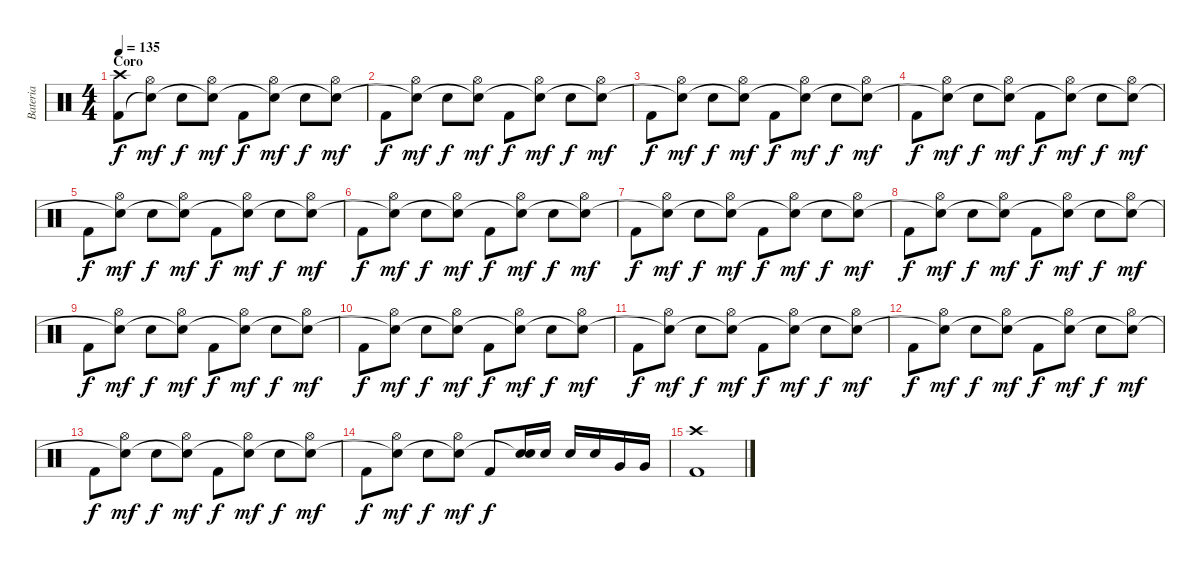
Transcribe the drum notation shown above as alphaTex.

\track ("Bateria" "Bateria") {instrument percussion}
\staff {score}
\articulation defaults
\ts (4 4)
\section ("" "Coro")
\tempo 135
\clef neutral
\ks c
("Crash high (hit)" "Kick (hit) 2").8{dy f} ("Hi-Hat (open)" "Snare (hit)"{t}).8{dy mf} "Electric Snare (hit)".8{dy f} ("Hi-Hat (open)" "Snare (hit)"{t}).8{dy mf} "Kick (hit) 2".8{dy f} ("Hi-Hat (open)" "Snare (hit)"{t}).8{dy mf} "Electric Snare (hit)".8{dy f} ("Hi-Hat (open)" "Snare (hit)"{t}).8{dy mf} |
"Kick (hit) 2".8{dy f} ("Hi-Hat (open)" "Snare (hit)"{t}).8{dy mf} "Electric Snare (hit)".8{dy f} ("Hi-Hat (open)" "Snare (hit)"{t}).8{dy mf} "Kick (hit) 2".8{dy f} ("Hi-Hat (open)" "Snare (hit)"{t}).8{dy mf} "Electric Snare (hit)".8{dy f} ("Hi-Hat (open)" "Snare (hit)"{t}).8{dy mf} |
"Kick (hit) 2".8{dy f} ("Hi-Hat (open)" "Snare (hit)"{t}).8{dy mf} "Electric Snare (hit)".8{dy f} ("Hi-Hat (open)" "Snare (hit)"{t}).8{dy mf} "Kick (hit) 2".8{dy f} ("Hi-Hat (open)" "Snare (hit)"{t}).8{dy mf} "Electric Snare (hit)".8{dy f} ("Hi-Hat (open)" "Snare (hit)"{t}).8{dy mf} |
"Kick (hit) 2".8{dy f} ("Hi-Hat (open)" "Snare (hit)"{t}).8{dy mf} "Electric Snare (hit)".8{dy f} ("Hi-Hat (open)" "Snare (hit)"{t}).8{dy mf} "Kick (hit) 2".8{dy f} ("Hi-Hat (open)" "Snare (hit)"{t}).8{dy mf} "Electric Snare (hit)".8{dy f} ("Hi-Hat (open)" "Snare (hit)"{t}).8{dy mf} |
"Kick (hit) 2".8{dy f} ("Hi-Hat (open)" "Snare (hit)"{t}).8{dy mf} "Electric Snare (hit)".8{dy f} ("Hi-Hat (open)" "Snare (hit)"{t}).8{dy mf} "Kick (hit) 2".8{dy f} ("Hi-Hat (open)" "Snare (hit)"{t}).8{dy mf} "Electric Snare (hit)".8{dy f} ("Hi-Hat (open)" "Snare (hit)"{t}).8{dy mf} |
"Kick (hit) 2".8{dy f} ("Hi-Hat (open)" "Snare (hit)"{t}).8{dy mf} "Electric Snare (hit)".8{dy f} ("Hi-Hat (open)" "Snare (hit)"{t}).8{dy mf} "Kick (hit) 2".8{dy f} ("Hi-Hat (open)" "Snare (hit)"{t}).8{dy mf} "Electric Snare (hit)".8{dy f} ("Hi-Hat (open)" "Snare (hit)"{t}).8{dy mf} |
"Kick (hit) 2".8{dy f} ("Hi-Hat (open)" "Snare (hit)"{t}).8{dy mf} "Electric Snare (hit)".8{dy f} ("Hi-Hat (open)" "Snare (hit)"{t}).8{dy mf} "Kick (hit) 2".8{dy f} ("Hi-Hat (open)" "Snare (hit)"{t}).8{dy mf} "Electric Snare (hit)".8{dy f} ("Hi-Hat (open)" "Snare (hit)"{t}).8{dy mf} |
"Kick (hit) 2".8{dy f} ("Hi-Hat (open)" "Snare (hit)"{t}).8{dy mf} "Electric Snare (hit)".8{dy f} ("Hi-Hat (open)" "Snare (hit)"{t}).8{dy mf} "Kick (hit) 2".8{dy f} ("Hi-Hat (open)" "Snare (hit)"{t}).8{dy mf} "Electric Snare (hit)".8{dy f} ("Hi-Hat (open)" "Snare (hit)"{t}).8{dy mf} |
"Kick (hit) 2".8{dy f} ("Hi-Hat (open)" "Snare (hit)"{t}).8{dy mf} "Electric Snare (hit)".8{dy f} ("Hi-Hat (open)" "Snare (hit)"{t}).8{dy mf} "Kick (hit) 2".8{dy f} ("Hi-Hat (open)" "Snare (hit)"{t}).8{dy mf} "Electric Snare (hit)".8{dy f} ("Hi-Hat (open)" "Snare (hit)"{t}).8{dy mf} |
"Kick (hit) 2".8{dy f} ("Hi-Hat (open)" "Snare (hit)"{t}).8{dy mf} "Electric Snare (hit)".8{dy f} ("Hi-Hat (open)" "Snare (hit)"{t}).8{dy mf} "Kick (hit) 2".8{dy f} ("Hi-Hat (open)" "Snare (hit)"{t}).8{dy mf} "Electric Snare (hit)".8{dy f} ("Hi-Hat (open)" "Snare (hit)"{t}).8{dy mf} |
"Kick (hit) 2".8{dy f} ("Hi-Hat (open)" "Snare (hit)"{t}).8{dy mf} "Electric Snare (hit)".8{dy f} ("Hi-Hat (open)" "Snare (hit)"{t}).8{dy mf} "Kick (hit) 2".8{dy f} ("Hi-Hat (open)" "Snare (hit)"{t}).8{dy mf} "Electric Snare (hit)".8{dy f} ("Hi-Hat (open)" "Snare (hit)"{t}).8{dy mf} |
"Kick (hit) 2".8{dy f} ("Hi-Hat (open)" "Snare (hit)"{t}).8{dy mf} "Electric Snare (hit)".8{dy f} ("Hi-Hat (open)" "Snare (hit)"{t}).8{dy mf} "Kick (hit) 2".8{dy f} ("Hi-Hat (open)" "Snare (hit)"{t}).8{dy mf} "Electric Snare (hit)".8{dy f} ("Hi-Hat (open)" "Snare (hit)"{t}).8{dy mf} |
"Kick (hit) 2".8{dy f} ("Hi-Hat (open)" "Snare (hit)"{t}).8{dy mf} "Electric Snare (hit)".8{dy f} ("Hi-Hat (open)" "Snare (hit)"{t}).8{dy mf} "Kick (hit) 2".8{dy f} ("Hi-Hat (open)" "Snare (hit)"{t}).8{dy mf} "Electric Snare (hit)".8{dy f} ("Hi-Hat (open)" "Snare (hit)"{t}).8{dy mf} |
"Kick (hit) 2".8{dy f} ("Hi-Hat (open)" "Snare (hit)"{t}).8{dy mf} "Electric Snare (hit)".8{dy f} ("Hi-Hat (open)" "Snare (hit)"{t}).8{dy mf} "Kick (hit) 2".8{dy f} ("Electric Snare (hit)" "Snare (hit)"{t}).16 "Electric Snare (hit)".16 "Electric Snare (hit)".16 "Electric Snare (hit)".16 "Very Low Tom (hit)".16 "Very Low Tom (hit)".16 |
("Crash high (hit)" "Kick (hit) 2").1
